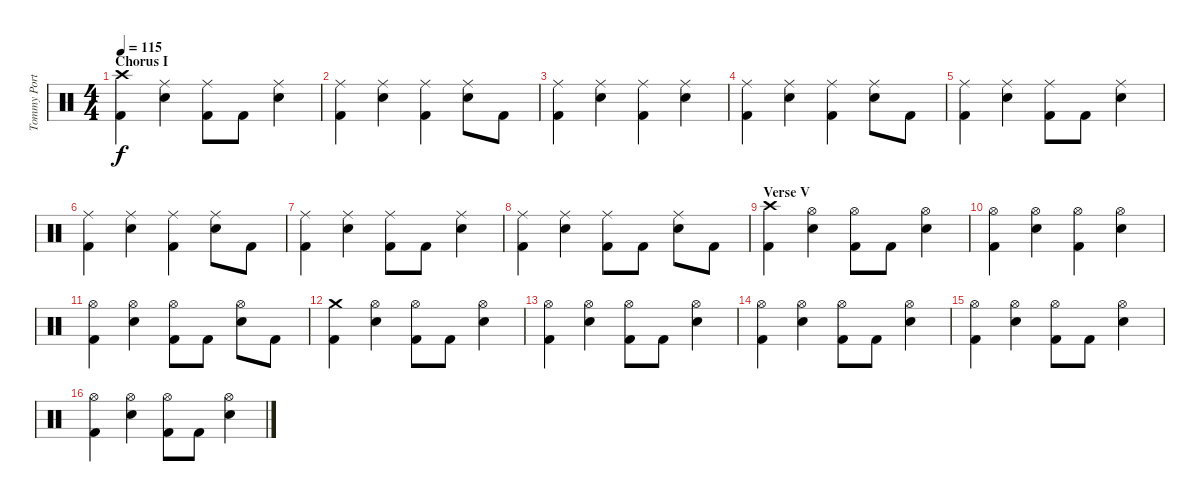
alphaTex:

\track ("Tommy Portino - Drums" "Tommy Port") {instrument percussion}
\staff {score}
\articulation defaults
\ts (4 4)
\section ("" "Chorus I")
\tempo 115
\clef neutral
\ks c
("Crash high (hit)" "Kick (hit) 2").4{dy f} ("Ride (middle)" "Electric Snare (hit)").4 ("Ride (middle)" "Kick (hit) 2").8 "Kick (hit) 2".8 ("Ride (middle)" "Electric Snare (hit)").4 |
("Ride (middle)" "Kick (hit) 2").4 ("Ride (middle)" "Electric Snare (hit)").4 ("Ride (middle)" "Kick (hit) 2").4 ("Ride (middle)" "Electric Snare (hit)").8 "Kick (hit) 2".8 |
("Ride (middle)" "Kick (hit) 2").4 ("Ride (middle)" "Electric Snare (hit)").4 ("Ride (middle)" "Kick (hit) 2").4 ("Ride (middle)" "Electric Snare (hit)").4 |
("Ride (middle)" "Kick (hit) 2").4 ("Ride (middle)" "Electric Snare (hit)").4 ("Ride (middle)" "Kick (hit) 2").4 ("Ride (middle)" "Electric Snare (hit)").8 "Kick (hit) 2".8 |
("Ride (middle)" "Kick (hit) 2").4 ("Ride (middle)" "Electric Snare (hit)").4 ("Ride (middle)" "Kick (hit) 2").8 "Kick (hit) 2".8 ("Ride (middle)" "Electric Snare (hit)").4 |
("Ride (middle)" "Kick (hit) 2").4 ("Ride (middle)" "Electric Snare (hit)").4 ("Ride (middle)" "Kick (hit) 2").4 ("Ride (middle)" "Electric Snare (hit)").8 "Kick (hit) 2".8 |
("Ride (middle)" "Kick (hit) 2").4 ("Ride (middle)" "Electric Snare (hit)").4 ("Ride (middle)" "Kick (hit) 2").8 "Kick (hit) 2".8 ("Ride (middle)" "Electric Snare (hit)").4 |
("Ride (middle)" "Kick (hit) 2").4 ("Ride (middle)" "Electric Snare (hit)").4 ("Ride (middle)" "Kick (hit) 2").8 "Kick (hit) 2".8 ("Ride (middle)" "Electric Snare (hit)").8 "Kick (hit) 2".8 |
\section ("" "Verse V")
("Crash high (hit)" "Kick (hit) 2").4 ("Hi-Hat (open)" "Electric Snare (hit)").4 ("Hi-Hat (open)" "Kick (hit) 2").8 "Kick (hit) 2".8 ("Hi-Hat (open)" "Electric Snare (hit)").4 |
("Hi-Hat (open)" "Kick (hit) 2").4 ("Hi-Hat (open)" "Electric Snare (hit)").4 ("Hi-Hat (open)" "Kick (hit) 2").4 ("Hi-Hat (open)" "Electric Snare (hit)").4 |
("Hi-Hat (open)" "Kick (hit) 2").4 ("Hi-Hat (open)" "Electric Snare (hit)").4 ("Hi-Hat (open)" "Kick (hit) 2").8 "Kick (hit) 2".8 ("Hi-Hat (open)" "Electric Snare (hit)").8 "Kick (hit) 2".8 |
("Crash medium (hit)" "Kick (hit) 2").4 ("Hi-Hat (open)" "Electric Snare (hit)").4 ("Hi-Hat (open)" "Kick (hit) 2").8 "Kick (hit) 2".8 ("Hi-Hat (open)" "Electric Snare (hit)").4 |
("Hi-Hat (open)" "Kick (hit) 2").4 ("Hi-Hat (open)" "Electric Snare (hit)").4 ("Hi-Hat (open)" "Kick (hit) 2").8 "Kick (hit) 2".8 ("Hi-Hat (open)" "Electric Snare (hit)").4 |
("Hi-Hat (open)" "Kick (hit) 2").4 ("Hi-Hat (open)" "Electric Snare (hit)").4 ("Hi-Hat (open)" "Kick (hit) 2").8 "Kick (hit) 2".8 ("Hi-Hat (open)" "Electric Snare (hit)").4 |
("Hi-Hat (open)" "Kick (hit) 2").4 ("Hi-Hat (open)" "Electric Snare (hit)").4 ("Hi-Hat (open)" "Kick (hit) 2").8 "Kick (hit) 2".8 ("Hi-Hat (open)" "Electric Snare (hit)").4 |
("Hi-Hat (open)" "Kick (hit) 2").4 ("Hi-Hat (open)" "Electric Snare (hit)").4 ("Hi-Hat (open)" "Kick (hit) 2").8 "Kick (hit) 2".8 ("Hi-Hat (open)" "Electric Snare (hit)").4
